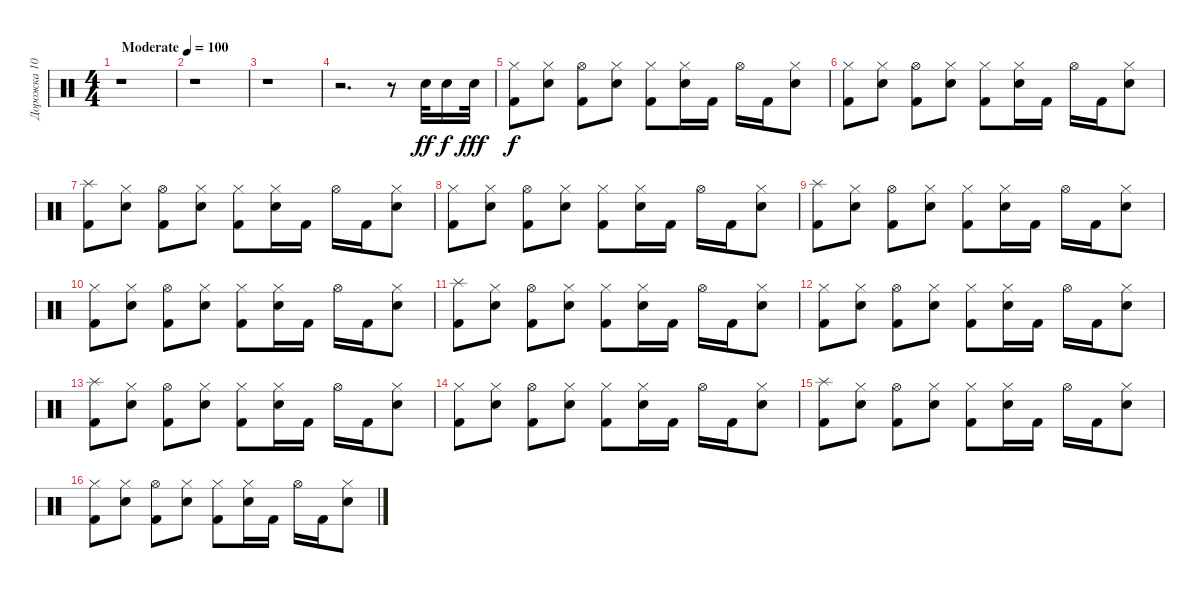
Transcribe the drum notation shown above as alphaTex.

\track ("Дорожка 10" "Дорожка 10") {instrument percussion}
\staff {score}
\articulation defaults
\ts (4 4)
\tempo (100 "Moderate")
\clef neutral
\ks c
r.1{dy ff} |
r.1 |
r.1 |
r.2{d} r.8 "Electric Snare (hit)".32 "Electric Snare (hit)".16{dy f} "Electric Snare (hit)".32{dy fff} |
("Kick (hit) 2" "Hi-Hat (closed)").8{dy f} ("Electric Snare (hit)" "Hi-Hat (closed)").8 ("Kick (hit) 2" "Hi-Hat (open)").8 ("Electric Snare (hit)" "Hi-Hat (closed)").8 ("Kick (hit) 2" "Hi-Hat (closed)").8 ("Electric Snare (hit)" "Hi-Hat (closed)").16 "Kick (hit) 2".16 "Hi-Hat (open)".16 "Kick (hit) 2".16 ("Electric Snare (hit)" "Hi-Hat (closed)").8 |
("Kick (hit) 2" "Hi-Hat (closed)").8 ("Electric Snare (hit)" "Hi-Hat (closed)").8 ("Kick (hit) 2" "Hi-Hat (open)").8 ("Electric Snare (hit)" "Hi-Hat (closed)").8 ("Kick (hit) 2" "Hi-Hat (closed)").8 ("Electric Snare (hit)" "Hi-Hat (closed)").16 "Kick (hit) 2".16 "Hi-Hat (open)".16 "Kick (hit) 2".16 ("Electric Snare (hit)" "Hi-Hat (closed)").8 |
("Kick (hit) 2" "Splash (hit)").8 ("Electric Snare (hit)" "Hi-Hat (closed)").8 ("Kick (hit) 2" "Hi-Hat (open)").8 ("Electric Snare (hit)" "Hi-Hat (closed)").8 ("Kick (hit) 2" "Hi-Hat (closed)").8 ("Electric Snare (hit)" "Hi-Hat (closed)").16 "Kick (hit) 2".16 "Hi-Hat (open)".16 "Kick (hit) 2".16 ("Electric Snare (hit)" "Hi-Hat (closed)").8 |
("Kick (hit) 2" "Hi-Hat (closed)").8 ("Electric Snare (hit)" "Hi-Hat (closed)").8 ("Kick (hit) 2" "Hi-Hat (open)").8 ("Electric Snare (hit)" "Hi-Hat (closed)").8 ("Kick (hit) 2" "Hi-Hat (closed)").8 ("Electric Snare (hit)" "Hi-Hat (closed)").16 "Kick (hit) 2".16 "Hi-Hat (open)".16 "Kick (hit) 2".16 ("Electric Snare (hit)" "Hi-Hat (closed)").8 |
("Kick (hit) 2" "Splash (hit)").8 ("Electric Snare (hit)" "Hi-Hat (closed)").8 ("Kick (hit) 2" "Hi-Hat (open)").8 ("Electric Snare (hit)" "Hi-Hat (closed)").8 ("Kick (hit) 2" "Hi-Hat (closed)").8 ("Electric Snare (hit)" "Hi-Hat (closed)").16 "Kick (hit) 2".16 "Hi-Hat (open)".16 "Kick (hit) 2".16 ("Electric Snare (hit)" "Hi-Hat (closed)").8 |
("Kick (hit) 2" "Hi-Hat (closed)").8 ("Electric Snare (hit)" "Hi-Hat (closed)").8 ("Kick (hit) 2" "Hi-Hat (open)").8 ("Electric Snare (hit)" "Hi-Hat (closed)").8 ("Kick (hit) 2" "Hi-Hat (closed)").8 ("Electric Snare (hit)" "Hi-Hat (closed)").16 "Kick (hit) 2".16 "Hi-Hat (open)".16 "Kick (hit) 2".16 ("Electric Snare (hit)" "Hi-Hat (closed)").8 |
("Kick (hit) 2" "Splash (hit)").8 ("Electric Snare (hit)" "Hi-Hat (closed)").8 ("Kick (hit) 2" "Hi-Hat (open)").8 ("Electric Snare (hit)" "Hi-Hat (closed)").8 ("Kick (hit) 2" "Hi-Hat (closed)").8 ("Electric Snare (hit)" "Hi-Hat (closed)").16 "Kick (hit) 2".16 "Hi-Hat (open)".16 "Kick (hit) 2".16 ("Electric Snare (hit)" "Hi-Hat (closed)").8 |
("Kick (hit) 2" "Hi-Hat (closed)").8 ("Electric Snare (hit)" "Hi-Hat (closed)").8 ("Kick (hit) 2" "Hi-Hat (open)").8 ("Electric Snare (hit)" "Hi-Hat (closed)").8 ("Kick (hit) 2" "Hi-Hat (closed)").8 ("Electric Snare (hit)" "Hi-Hat (closed)").16 "Kick (hit) 2".16 "Hi-Hat (open)".16 "Kick (hit) 2".16 ("Electric Snare (hit)" "Hi-Hat (closed)").8 |
("Kick (hit) 2" "Splash (hit)").8 ("Electric Snare (hit)" "Hi-Hat (closed)").8 ("Kick (hit) 2" "Hi-Hat (open)").8 ("Electric Snare (hit)" "Hi-Hat (closed)").8 ("Kick (hit) 2" "Hi-Hat (closed)").8 ("Electric Snare (hit)" "Hi-Hat (closed)").16 "Kick (hit) 2".16 "Hi-Hat (open)".16 "Kick (hit) 2".16 ("Electric Snare (hit)" "Hi-Hat (closed)").8 |
("Kick (hit) 2" "Hi-Hat (closed)").8 ("Electric Snare (hit)" "Hi-Hat (closed)").8 ("Kick (hit) 2" "Hi-Hat (open)").8 ("Electric Snare (hit)" "Hi-Hat (closed)").8 ("Kick (hit) 2" "Hi-Hat (closed)").8 ("Electric Snare (hit)" "Hi-Hat (closed)").16 "Kick (hit) 2".16 "Hi-Hat (open)".16 "Kick (hit) 2".16 ("Electric Snare (hit)" "Hi-Hat (closed)").8 |
("Kick (hit) 2" "Splash (hit)").8 ("Electric Snare (hit)" "Hi-Hat (closed)").8 ("Kick (hit) 2" "Hi-Hat (open)").8 ("Electric Snare (hit)" "Hi-Hat (closed)").8 ("Kick (hit) 2" "Hi-Hat (closed)").8 ("Electric Snare (hit)" "Hi-Hat (closed)").16 "Kick (hit) 2".16 "Hi-Hat (open)".16 "Kick (hit) 2".16 ("Electric Snare (hit)" "Hi-Hat (closed)").8 |
("Kick (hit) 2" "Hi-Hat (closed)").8 ("Electric Snare (hit)" "Hi-Hat (closed)").8 ("Kick (hit) 2" "Hi-Hat (open)").8 ("Electric Snare (hit)" "Hi-Hat (closed)").8 ("Kick (hit) 2" "Hi-Hat (closed)").8 ("Electric Snare (hit)" "Hi-Hat (closed)").16 "Kick (hit) 2".16 "Hi-Hat (open)".16 "Kick (hit) 2".16 ("Electric Snare (hit)" "Hi-Hat (closed)").8
